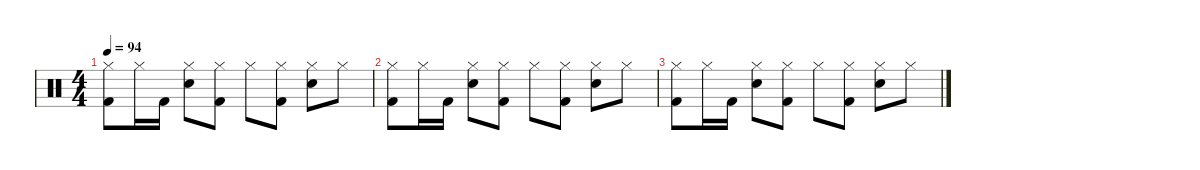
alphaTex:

\defaultSystemsLayout 4
\hideDynamics
\bracketExtendMode nobrackets
\singleTrackTrackNamePolicy hidden
\multiTrackTrackNamePolicy hidden
\otherSystemsTrackNameOrientation horizontal
\track ("Mike Joyce" "drm.") {instrument percussion}
\staff {score}
\articulation defaults
\ts (4 4)
\tempo 94
\clef neutral
\ks c
("Hi-Hat (closed)" "Kick (hit) 2").8{dy f} "Hi-Hat (closed)".16 "Kick (hit) 2".16 ("Hi-Hat (closed)" "Snare (hit) 2").8 ("Hi-Hat (closed)" "Kick (hit) 2").8 "Hi-Hat (closed)".8 ("Hi-Hat (closed)" "Kick (hit) 2").8 ("Hi-Hat (closed)" "Snare (hit) 2").8 "Hi-Hat (closed)".8 |
("Hi-Hat (closed)" "Kick (hit) 2").8 "Hi-Hat (closed)".16 "Kick (hit) 2".16 ("Hi-Hat (closed)" "Snare (hit) 2").8 ("Hi-Hat (closed)" "Kick (hit) 2").8 "Hi-Hat (closed)".8 ("Hi-Hat (closed)" "Kick (hit) 2").8 ("Hi-Hat (closed)" "Snare (hit) 2").8 "Hi-Hat (closed)".8 |
("Hi-Hat (closed)" "Kick (hit) 2").8 "Hi-Hat (closed)".16 "Kick (hit) 2".16 ("Hi-Hat (closed)" "Snare (hit) 2").8 ("Hi-Hat (closed)" "Kick (hit) 2").8 "Hi-Hat (closed)".8 ("Hi-Hat (closed)" "Kick (hit) 2").8 ("Hi-Hat (closed)" "Snare (hit) 2").8 "Hi-Hat (closed)".8
